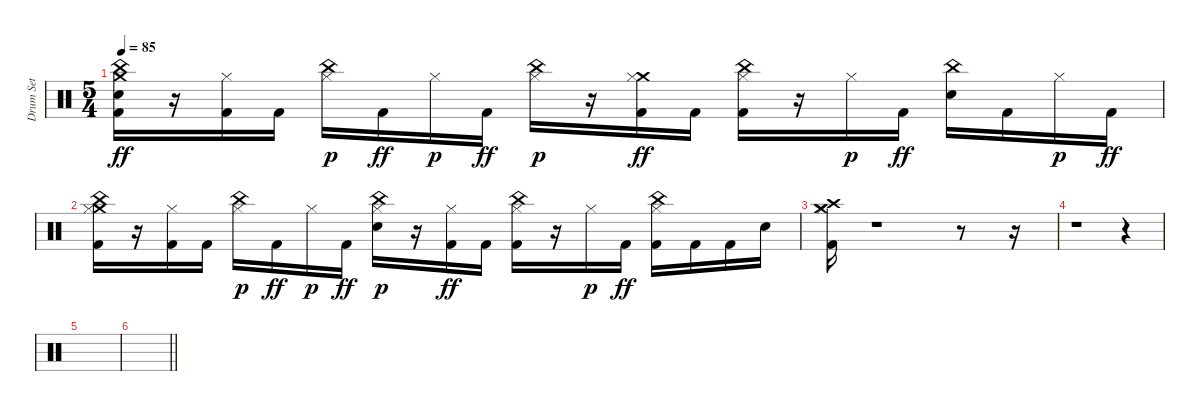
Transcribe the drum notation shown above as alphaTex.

\track ("Drum Set" "Drum Set") {instrument percussion}
\staff {score}
\articulation defaults
\ts (5 4)
\tempo 85
\clef neutral
\ks c
("China (hit)" "Crash medium (hit)" "Electric Snare (hit)" "Kick (hit) 2").16{dy ff} r.16 ("Hi-Hat (closed)" "Kick (hit) 2").16 "Kick (hit) 2".16 ("China (hit)" "Hi-Hat (closed)").16{dy p} "Kick (hit) 2".16{dy ff} "Hi-Hat (closed)".16{dy p} "Kick (hit) 2".16{dy ff} ("China (hit)" "Hi-Hat (closed)").16{dy p} r.16 ("Crash medium (hit)" "Hi-Hat (closed)" "Kick (hit) 2").16{dy ff} "Kick (hit) 2".16 ("China (hit)" "Hi-Hat (closed)" "Kick (hit) 2").16 r.16 "Hi-Hat (closed)".16{dy p} "Kick (hit) 2".16{dy ff} ("China (hit)" "Electric Snare (hit)").16 "Kick (hit) 2".16 "Hi-Hat (closed)".16{dy p} "Kick (hit) 2".16{dy ff} |
("China (hit)" "Crash medium (hit)" "Hi-Hat (closed)" "Kick (hit) 2").16 r.16 ("Hi-Hat (closed)" "Kick (hit) 2").16 "Kick (hit) 2".16 ("China (hit)" "Hi-Hat (closed)").16{dy p} "Kick (hit) 2".16{dy ff} "Hi-Hat (closed)".16{dy p} "Kick (hit) 2".16{dy ff} ("China (hit)" "Electric Snare (hit)" "Hi-Hat (closed)").16{dy p} r.16 ("Hi-Hat (closed)" "Kick (hit) 2").16{dy ff} "Kick (hit) 2".16 ("China (hit)" "Hi-Hat (closed)" "Kick (hit) 2").16 r.16 "Hi-Hat (closed)".16{dy p} "Kick (hit) 2".16{dy ff} ("China (hit)" "Hi-Hat (closed)" "Kick (hit) 2").16 "Kick (hit) 2".16 "Kick (hit) 2".16 "Electric Snare (hit)".16 |
("Crash high (hit)" "Crash medium (hit)" "Hi-Hat (closed)" "Kick (hit) 2").16 r.1 r.8 r.16 |
r.1 r.4 |
|
\barLineRight lightlight
